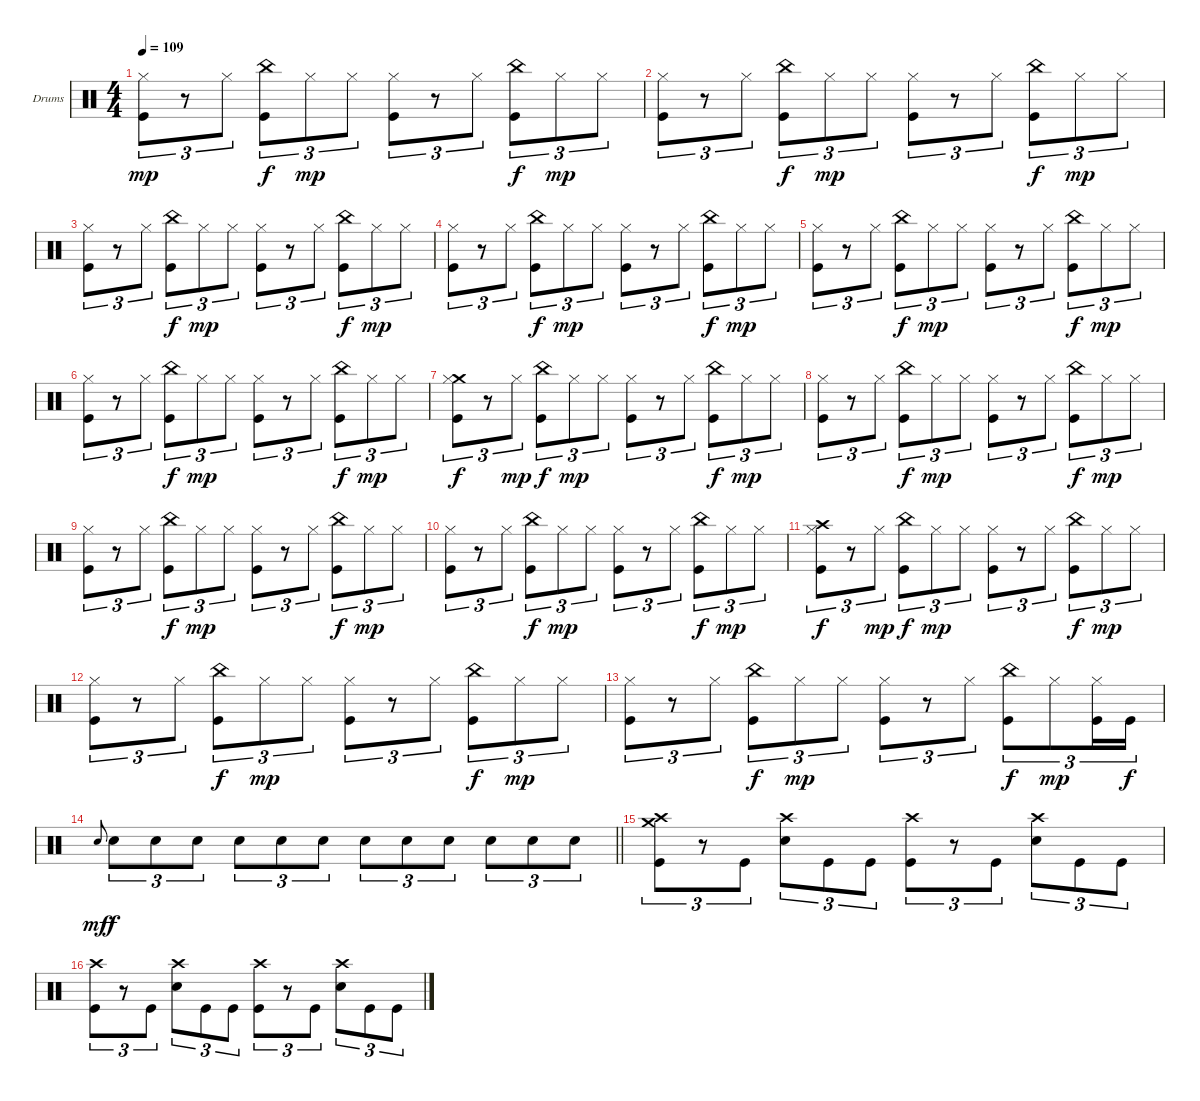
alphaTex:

\bracketExtendMode groupsimilarinstruments
\firstSystemTrackNameOrientation horizontal
\otherSystemsTrackNameOrientation horizontal
\track ("Drumkit (Christoph)" "Drums") {instrument percussion}
\staff {score}
\articulation defaults
\ts (4 4)
\tempo 109
\clef neutral
\ks c
("Hi-Hat (closed)" "Kick (hit)").8{tu (3 2) dy mp} r.8{tu (3 2)} "Hi-Hat (closed)".8{tu (3 2)} ("China (hit)" "Kick (hit)").8{tu (3 2) dy f} "Hi-Hat (closed)".8{tu (3 2) dy mp} "Hi-Hat (closed)".8{tu (3 2)} ("Hi-Hat (closed)" "Kick (hit)").8{tu (3 2)} r.8{tu (3 2)} "Hi-Hat (closed)".8{tu (3 2)} ("China (hit)" "Kick (hit)").8{tu (3 2) dy f} "Hi-Hat (closed)".8{tu (3 2) dy mp} "Hi-Hat (closed)".8{tu (3 2)} |
("Hi-Hat (closed)" "Kick (hit)").8{tu (3 2)} r.8{tu (3 2)} "Hi-Hat (closed)".8{tu (3 2)} ("China (hit)" "Kick (hit)").8{tu (3 2) dy f} "Hi-Hat (closed)".8{tu (3 2) dy mp} "Hi-Hat (closed)".8{tu (3 2)} ("Hi-Hat (closed)" "Kick (hit)").8{tu (3 2)} r.8{tu (3 2)} "Hi-Hat (closed)".8{tu (3 2)} ("China (hit)" "Kick (hit)").8{tu (3 2) dy f} "Hi-Hat (closed)".8{tu (3 2) dy mp} "Hi-Hat (closed)".8{tu (3 2)} |
("Hi-Hat (closed)" "Kick (hit)").8{tu (3 2)} r.8{tu (3 2)} "Hi-Hat (closed)".8{tu (3 2)} ("China (hit)" "Kick (hit)").8{tu (3 2) dy f} "Hi-Hat (closed)".8{tu (3 2) dy mp} "Hi-Hat (closed)".8{tu (3 2)} ("Hi-Hat (closed)" "Kick (hit)").8{tu (3 2)} r.8{tu (3 2)} "Hi-Hat (closed)".8{tu (3 2)} ("China (hit)" "Kick (hit)").8{tu (3 2) dy f} "Hi-Hat (closed)".8{tu (3 2) dy mp} "Hi-Hat (closed)".8{tu (3 2)} |
("Hi-Hat (closed)" "Kick (hit)").8{tu (3 2)} r.8{tu (3 2)} "Hi-Hat (closed)".8{tu (3 2)} ("China (hit)" "Kick (hit)").8{tu (3 2) dy f} "Hi-Hat (closed)".8{tu (3 2) dy mp} "Hi-Hat (closed)".8{tu (3 2)} ("Hi-Hat (closed)" "Kick (hit)").8{tu (3 2)} r.8{tu (3 2)} "Hi-Hat (closed)".8{tu (3 2)} ("China (hit)" "Kick (hit)").8{tu (3 2) dy f} "Hi-Hat (closed)".8{tu (3 2) dy mp} "Hi-Hat (closed)".8{tu (3 2)} |
("Hi-Hat (closed)" "Kick (hit)").8{tu (3 2)} r.8{tu (3 2)} "Hi-Hat (closed)".8{tu (3 2)} ("China (hit)" "Kick (hit)").8{tu (3 2) dy f} "Hi-Hat (closed)".8{tu (3 2) dy mp} "Hi-Hat (closed)".8{tu (3 2)} ("Hi-Hat (closed)" "Kick (hit)").8{tu (3 2)} r.8{tu (3 2)} "Hi-Hat (closed)".8{tu (3 2)} ("China (hit)" "Kick (hit)").8{tu (3 2) dy f} "Hi-Hat (closed)".8{tu (3 2) dy mp} "Hi-Hat (closed)".8{tu (3 2)} |
("Hi-Hat (closed)" "Kick (hit)").8{tu (3 2)} r.8{tu (3 2)} "Hi-Hat (closed)".8{tu (3 2)} ("China (hit)" "Kick (hit)").8{tu (3 2) dy f} "Hi-Hat (closed)".8{tu (3 2) dy mp} "Hi-Hat (closed)".8{tu (3 2)} ("Hi-Hat (closed)" "Kick (hit)").8{tu (3 2)} r.8{tu (3 2)} "Hi-Hat (closed)".8{tu (3 2)} ("China (hit)" "Kick (hit)").8{tu (3 2) dy f} "Hi-Hat (closed)".8{tu (3 2) dy mp} "Hi-Hat (closed)".8{tu (3 2)} |
("Crash medium (hit)" "Hi-Hat (closed)" "Kick (hit)").8{tu (3 2) dy f} r.8{tu (3 2)} "Hi-Hat (closed)".8{tu (3 2) dy mp} ("China (hit)" "Kick (hit)").8{tu (3 2) dy f} "Hi-Hat (closed)".8{tu (3 2) dy mp} "Hi-Hat (closed)".8{tu (3 2)} ("Hi-Hat (closed)" "Kick (hit)").8{tu (3 2)} r.8{tu (3 2)} "Hi-Hat (closed)".8{tu (3 2)} ("China (hit)" "Kick (hit)").8{tu (3 2) dy f} "Hi-Hat (closed)".8{tu (3 2) dy mp} "Hi-Hat (closed)".8{tu (3 2)} |
("Hi-Hat (closed)" "Kick (hit)").8{tu (3 2)} r.8{tu (3 2)} "Hi-Hat (closed)".8{tu (3 2)} ("China (hit)" "Kick (hit)").8{tu (3 2) dy f} "Hi-Hat (closed)".8{tu (3 2) dy mp} "Hi-Hat (closed)".8{tu (3 2)} ("Hi-Hat (closed)" "Kick (hit)").8{tu (3 2)} r.8{tu (3 2)} "Hi-Hat (closed)".8{tu (3 2)} ("China (hit)" "Kick (hit)").8{tu (3 2) dy f} "Hi-Hat (closed)".8{tu (3 2) dy mp} "Hi-Hat (closed)".8{tu (3 2)} |
("Hi-Hat (closed)" "Kick (hit)").8{tu (3 2)} r.8{tu (3 2)} "Hi-Hat (closed)".8{tu (3 2)} ("China (hit)" "Kick (hit)").8{tu (3 2) dy f} "Hi-Hat (closed)".8{tu (3 2) dy mp} "Hi-Hat (closed)".8{tu (3 2)} ("Hi-Hat (closed)" "Kick (hit)").8{tu (3 2)} r.8{tu (3 2)} "Hi-Hat (closed)".8{tu (3 2)} ("China (hit)" "Kick (hit)").8{tu (3 2) dy f} "Hi-Hat (closed)".8{tu (3 2) dy mp} "Hi-Hat (closed)".8{tu (3 2)} |
("Hi-Hat (closed)" "Kick (hit)").8{tu (3 2)} r.8{tu (3 2)} "Hi-Hat (closed)".8{tu (3 2)} ("China (hit)" "Kick (hit)").8{tu (3 2) dy f} "Hi-Hat (closed)".8{tu (3 2) dy mp} "Hi-Hat (closed)".8{tu (3 2)} ("Hi-Hat (closed)" "Kick (hit)").8{tu (3 2)} r.8{tu (3 2)} "Hi-Hat (closed)".8{tu (3 2)} ("China (hit)" "Kick (hit)").8{tu (3 2) dy f} "Hi-Hat (closed)".8{tu (3 2) dy mp} "Hi-Hat (closed)".8{tu (3 2)} |
("Crash high (hit)" "Hi-Hat (closed)" "Kick (hit)").8{tu (3 2) dy f} r.8{tu (3 2)} "Hi-Hat (closed)".8{tu (3 2) dy mp} ("China (hit)" "Kick (hit)").8{tu (3 2) dy f} "Hi-Hat (closed)".8{tu (3 2) dy mp} "Hi-Hat (closed)".8{tu (3 2)} ("Hi-Hat (closed)" "Kick (hit)").8{tu (3 2)} r.8{tu (3 2)} "Hi-Hat (closed)".8{tu (3 2)} ("China (hit)" "Kick (hit)").8{tu (3 2) dy f} "Hi-Hat (closed)".8{tu (3 2) dy mp} "Hi-Hat (closed)".8{tu (3 2)} |
("Hi-Hat (closed)" "Kick (hit)").8{tu (3 2)} r.8{tu (3 2)} "Hi-Hat (closed)".8{tu (3 2)} ("China (hit)" "Kick (hit)").8{tu (3 2) dy f} "Hi-Hat (closed)".8{tu (3 2) dy mp} "Hi-Hat (closed)".8{tu (3 2)} ("Hi-Hat (closed)" "Kick (hit)").8{tu (3 2)} r.8{tu (3 2)} "Hi-Hat (closed)".8{tu (3 2)} ("China (hit)" "Kick (hit)").8{tu (3 2) dy f} "Hi-Hat (closed)".8{tu (3 2) dy mp} "Hi-Hat (closed)".8{tu (3 2)} |
("Hi-Hat (closed)" "Kick (hit)").8{tu (3 2)} r.8{tu (3 2)} "Hi-Hat (closed)".8{tu (3 2)} ("China (hit)" "Kick (hit)").8{tu (3 2) dy f} "Hi-Hat (closed)".8{tu (3 2) dy mp} "Hi-Hat (closed)".8{tu (3 2)} ("Hi-Hat (closed)" "Kick (hit)").8{tu (3 2)} r.8{tu (3 2)} "Hi-Hat (closed)".8{tu (3 2)} ("China (hit)" "Kick (hit)").8{tu (3 2) dy f} "Hi-Hat (closed)".8{tu (3 2) dy mp} ("Hi-Hat (closed)" "Kick (hit)").16{tu (3 2)} "Kick (hit)".16{tu (3 2) dy f} |
\barLineRight lightlight "Snare (hit) 2".8{gr onbeat dy mf} "Snare (hit) 2".8{tu (3 2) dy f} "Snare (hit) 2".8{tu (3 2)} "Snare (hit) 2".8{tu (3 2)} "Snare (hit) 2".8{tu (3 2)} "Snare (hit) 2".8{tu (3 2)} "Snare (hit) 2".8{tu (3 2)} "Snare (hit) 2".8{tu (3 2)} "Snare (hit) 2".8{tu (3 2)} "Snare (hit) 2".8{tu (3 2)} "Snare (hit) 2".8{tu (3 2)} "Snare (hit) 2".8{tu (3 2)} "Snare (hit) 2".8{tu (3 2)}
|
("Crash high (hit)" "Crash medium (hit)" "Kick (hit)").8{tu (3 2)} r.8{tu (3 2)} "Kick (hit)".8{tu (3 2)} ("Crash high (hit)" "Snare (hit) 2").8{tu (3 2)} "Kick (hit)".8{tu (3 2)} "Kick (hit)".8{tu (3 2)} ("Crash high (hit)" "Kick (hit)").8{tu (3 2)} r.8{tu (3 2)} "Kick (hit)".8{tu (3 2)} ("Crash high (hit)" "Snare (hit) 2").8{tu (3 2)} "Kick (hit)".8{tu (3 2)} "Kick (hit)".8{tu (3 2)} |
("Crash high (hit)" "Kick (hit)").8{tu (3 2)} r.8{tu (3 2)} "Kick (hit)".8{tu (3 2)} ("Crash high (hit)" "Snare (hit) 2").8{tu (3 2)} "Kick (hit)".8{tu (3 2)} "Kick (hit)".8{tu (3 2)} ("Crash high (hit)" "Kick (hit)").8{tu (3 2)} r.8{tu (3 2)} "Kick (hit)".8{tu (3 2)} ("Crash high (hit)" "Snare (hit) 2").8{tu (3 2)} "Kick (hit)".8{tu (3 2)} "Kick (hit)".8{tu (3 2)}
